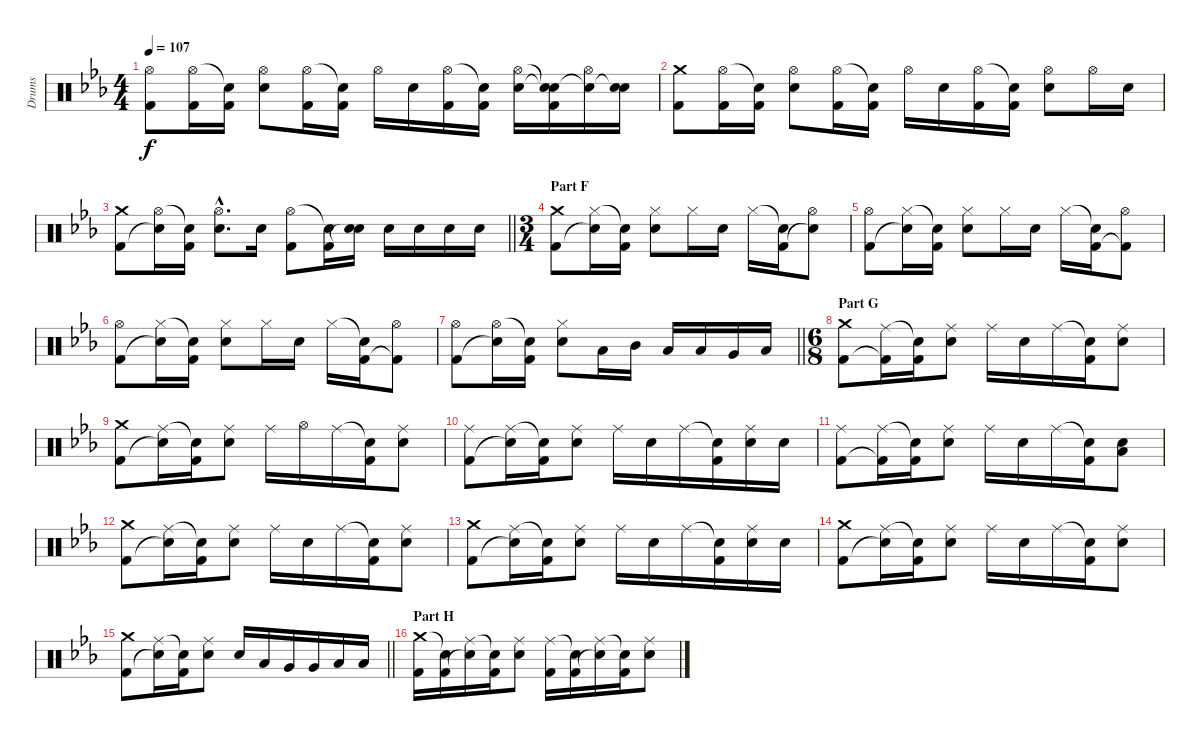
\track ("Drums" "Drums") {instrument percussion}
\staff {score}
\articulation defaults
\ts (4 4)
\tempo 107
\clef neutral
\ks eb
("Hi-Hat (open)" "Kick (hit) 2").8{dy f} ("Hi-Hat (open)" "Kick (hit) 2").16 ("Snare (hit)"{t} "Kick (hit) 2").16 ("Hi-Hat (open)" "Electric Snare (hit)").8 ("Hi-Hat (open)" "Kick (hit) 2").16 ("Snare (hit)"{t} "Kick (hit) 2").16 "Hi-Hat (open)".16 "Electric Snare (hit)".16 ("Hi-Hat (open)" "Kick (hit) 2").16 ("Snare (hit)"{t} "Kick (hit) 2").16 ("Hi-Hat (open)" "Electric Snare (hit)").16 ("Snare (hit)"{t} "Snare (hit)"{t} "Kick (hit) 2").16 ("Hi-Hat (open)" "Snare (hit)"{t}).16 ("Electric Snare (hit)" "Snare (hit)"{t}).16 |
("Crash medium (hit)" "Kick (hit) 2").8 ("Hi-Hat (open)" "Kick (hit) 2").16 ("Snare (hit)"{t} "Kick (hit) 2").16 ("Hi-Hat (open)" "Electric Snare (hit)").8 ("Hi-Hat (open)" "Kick (hit) 2").16 ("Snare (hit)"{t} "Kick (hit) 2").16 "Hi-Hat (open)".16 "Electric Snare (hit)".16 ("Hi-Hat (open)" "Kick (hit) 2").16 ("Snare (hit)"{t} "Kick (hit) 2").16 ("Hi-Hat (open)" "Electric Snare (hit)").8 "Hi-Hat (open)".16 "Electric Snare (hit)".16 |
\barLineRight lightlight
("Crash medium (hit)" "Kick (hit) 2").8 ("Hi-Hat (open)" "Snare (hit)"{t}).16 ("Snare (hit)"{t} "Kick (hit) 2").16 ("Hi-Hat (open)"{hac} "Electric Snare (hit)"{hac}).8{d} "Electric Snare (hit)".16 ("Hi-Hat (open)" "Kick (hit) 2").8 ("Snare (hit)"{t} "Kick (hit) 2").16 ("Electric Snare (hit)" "Snare (hit)"{t}).16 "Electric Snare (hit)".16 "Electric Snare (hit)".16 "Electric Snare (hit)".16 "Electric Snare (hit)".16 |
\ts (3 4)
\section ("" "Part F")
("Crash medium (hit)" "Kick (hit) 2").8 ("Hi-Hat (closed)" "Snare (hit)"{t}).16 ("Snare (hit)"{t} "Kick (hit) 2").16 ("Hi-Hat (closed)" "Electric Snare (hit)").8 "Hi-Hat (closed)".16 "Electric Snare (hit)".16 "Hi-Hat (closed)".16 ("Snare (hit)"{t} "Kick (hit) 2").16 ("Hi-Hat (open)" "Snare (hit)"{t}).8 |
("Hi-Hat (open)" "Kick (hit) 2").8 ("Hi-Hat (closed)" "Snare (hit)"{t}).16 ("Snare (hit)"{t} "Kick (hit) 2").16 ("Hi-Hat (closed)" "Electric Snare (hit)").8 "Hi-Hat (closed)".16 "Electric Snare (hit)".16 "Hi-Hat (closed)".16 ("Snare (hit)"{t} "Kick (hit) 2").16 ("Hi-Hat (open)" "Kick (hit) 2"{t}).8 |
("Hi-Hat (open)" "Kick (hit) 2").8 ("Hi-Hat (closed)" "Snare (hit)"{t}).16 ("Snare (hit)"{t} "Kick (hit) 2").16 ("Hi-Hat (closed)" "Electric Snare (hit)").8 "Hi-Hat (closed)".16 "Electric Snare (hit)".16 "Hi-Hat (closed)".16 ("Snare (hit)"{t} "Kick (hit) 2").16 ("Hi-Hat (open)" "Kick (hit) 2"{t}).8 |
\barLineRight lightlight
("Hi-Hat (open)" "Kick (hit) 2").8 ("Hi-Hat (open)" "Snare (hit)"{t}).16 ("Snare (hit)"{t} "Kick (hit) 2").16 ("Hi-Hat (closed)" "Electric Snare (hit)").8 "Low Tom (hit)".16 "Mid Tom (hit)".16 "Low Tom (hit)".16 "Low Tom (hit)".16 "Very Low Tom (hit)".16 "Low Floor Tom (hit)".16 |
\ts (6 8)
\section ("" "Part G")
("Crash medium (hit)" "Kick (hit) 2").8 ("Ride (middle)" "Kick (hit) 2"{t}).16 ("Snare (hit)"{t} "Kick (hit) 2").16 ("Ride (middle)" "Electric Snare (hit)").8 "Ride (middle)".16 "Electric Snare (hit)".16 "Ride (middle)".16 ("Snare (hit)"{t} "Kick (hit) 2").16 ("Ride (middle)" "Electric Snare (hit)").8 |
("Crash medium (hit)" "Kick (hit) 2").8 ("Ride (middle)" "Snare (hit)"{t}).16 ("Snare (hit)"{t} "Kick (hit) 2").16 ("Ride (middle)" "Electric Snare (hit)").8 "Ride (middle)".16 "Hi-Hat (open)".16 "Ride (middle)".16 ("Snare (hit)"{t} "Kick (hit) 2").16 ("Ride (middle)" "Electric Snare (hit)").8 |
("Ride (middle)" "Kick (hit) 2").8 ("Ride (middle)" "Snare (hit)"{t}).16 ("Snare (hit)"{t} "Kick (hit) 2").16 ("Ride (middle)" "Electric Snare (hit)").8 "Ride (middle)".16 "Electric Snare (hit)".16 "Ride (middle)".16 ("Snare (hit)"{t} "Kick (hit) 2").16 ("Ride (middle)" "Electric Snare (hit)").16 "Electric Snare (hit)".16 |
("Ride (middle)" "Kick (hit) 2").8 ("Ride (middle)" "Kick (hit) 2"{t}).16 ("Snare (hit)"{t} "Kick (hit) 2").16 ("Ride (middle)" "Electric Snare (hit)").8 "Ride (middle)".16 "Electric Snare (hit)".16 "Ride (middle)".16 ("Snare (hit)"{t} "Kick (hit) 2").16 ("Electric Snare (hit)" "Low Floor Tom (hit)").8 |
("Crash medium (hit)" "Kick (hit) 2").8 ("Ride (middle)" "Snare (hit)"{t}).16 ("Snare (hit)"{t} "Kick (hit) 2").16 ("Ride (middle)" "Electric Snare (hit)").8 "Ride (middle)".16 "Electric Snare (hit)".16 "Ride (middle)".16 ("Snare (hit)"{t} "Kick (hit) 2").16 ("Ride (middle)" "Electric Snare (hit)").8 |
("Crash medium (hit)" "Kick (hit) 2").8 ("Ride (middle)" "Snare (hit)"{t}).16 ("Snare (hit)"{t} "Kick (hit) 2").16 ("Ride (middle)" "Electric Snare (hit)").8 "Ride (middle)".16 "Electric Snare (hit)".16 "Ride (middle)".16 ("Snare (hit)"{t} "Kick (hit) 2").16 ("Ride (middle)" "Electric Snare (hit)").16 "Electric Snare (hit)".16 |
("Crash medium (hit)" "Kick (hit) 2").8 ("Ride (middle)" "Snare (hit)"{t}).16 ("Snare (hit)"{t} "Kick (hit) 2").16 ("Ride (middle)" "Electric Snare (hit)").8 "Ride (middle)".16 "Electric Snare (hit)".16 "Ride (middle)".16 ("Snare (hit)"{t} "Kick (hit) 2").16 ("Ride (middle)" "Electric Snare (hit)").8 |
\barLineRight lightlight
("Crash medium (hit)" "Kick (hit) 2").8 ("Ride (middle)" "Snare (hit)"{t}).16 ("Snare (hit)"{t} "Kick (hit) 2").16 ("Ride (middle)" "Electric Snare (hit)").8 "Electric Snare (hit)".16 "Low Tom (hit)".16 "Very Low Tom (hit)".16 "Very Low Tom (hit)".16 "Low Floor Tom (hit)".16 "Low Floor Tom (hit)".16 |
\section ("" "Part H")
("Crash medium (hit)" "Kick (hit) 2").16 ("Snare (hit)"{t} "Kick (hit) 2").16 ("Ride (middle)" "Snare (hit)"{t}).16 ("Snare (hit)"{t} "Kick (hit) 2").16 ("Ride (middle)" "Electric Snare (hit)").8 ("Ride (middle)" "Kick (hit) 2").16 ("Snare (hit)"{t} "Kick (hit) 2").16 ("Ride (middle)" "Snare (hit)"{t}).16 ("Snare (hit)"{t} "Kick (hit) 2").16 ("Ride (middle)" "Electric Snare (hit)").8
